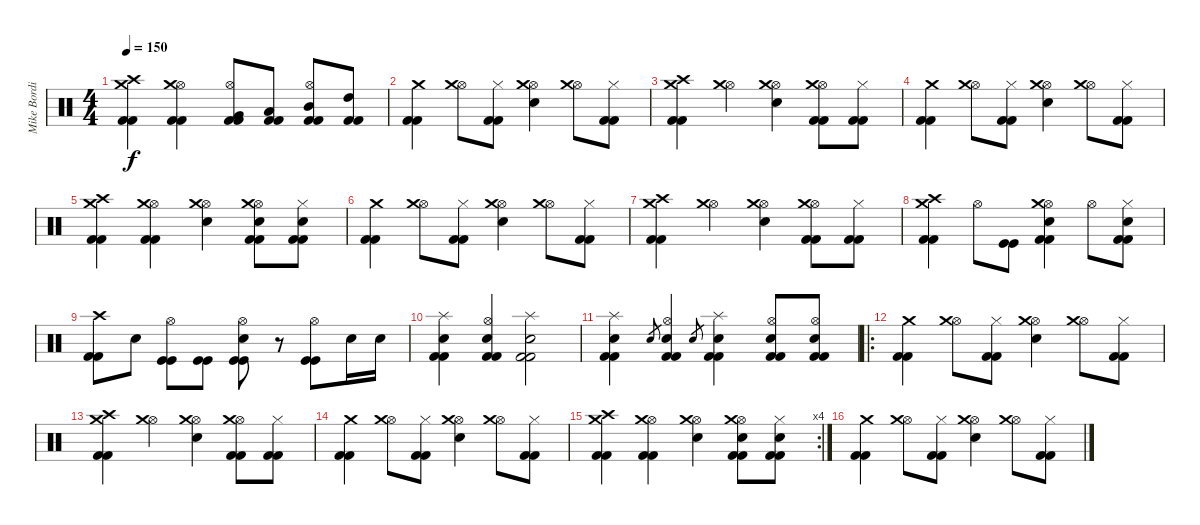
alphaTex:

\track ("Mike Bordin" "Mike Bordi") {instrument percussion}
\staff {score}
\articulation defaults
\ts (4 4)
\tempo 150
\clef neutral
\ks c
("Crash high (hit)" "Crash medium (hit)" "Kick (hit) 2" "Kick (hit) 2").4{dy f} ("Hi-Hat (open)" "Crash medium (hit)" "Kick (hit) 2" "Kick (hit) 2").4 ("Hi-Hat (open)" "Very Low Tom (hit)" "Kick (hit) 2" "Kick (hit) 2").8 ("Low Tom (hit)" "Kick (hit) 2" "Kick (hit) 2").8 ("Hi-Hat (open)" "Mid Tom (hit)" "Kick (hit) 2" "Kick (hit) 2").8 ("High Tom (hit)" "Kick (hit) 2" "Kick (hit) 2").8 |
("Crash medium (hit)" "Kick (hit) 2" "Kick (hit) 2").4 ("Hi-Hat (open)" "Crash medium (hit)").8 ("Hi-Hat (closed)" "Kick (hit) 2" "Kick (hit) 2").8 ("Hi-Hat (open)" "Crash medium (hit)" "Electric Snare (hit)").4 ("Hi-Hat (open)" "Crash medium (hit)").8 ("Hi-Hat (closed)" "Kick (hit) 2" "Kick (hit) 2").8 |
("Crash high (hit)" "Crash medium (hit)" "Kick (hit) 2" "Kick (hit) 2").4 ("Hi-Hat (open)" "Crash medium (hit)").4 ("Hi-Hat (open)" "Crash medium (hit)" "Electric Snare (hit)").4 ("Hi-Hat (open)" "Crash medium (hit)" "Kick (hit) 2" "Kick (hit) 2").8 ("Hi-Hat (closed)" "Kick (hit) 2" "Kick (hit) 2").8 |
("Crash medium (hit)" "Kick (hit) 2" "Kick (hit) 2").4 ("Hi-Hat (open)" "Crash medium (hit)").8 ("Hi-Hat (closed)" "Kick (hit) 2" "Kick (hit) 2").8 ("Hi-Hat (open)" "Crash medium (hit)" "Electric Snare (hit)").4 ("Hi-Hat (open)" "Crash medium (hit)").8 ("Hi-Hat (closed)" "Kick (hit) 2" "Kick (hit) 2").8 |
("Crash high (hit)" "Crash medium (hit)" "Kick (hit) 2" "Kick (hit) 2").4 ("Hi-Hat (open)" "Crash medium (hit)" "Kick (hit) 2" "Kick (hit) 2").4 ("Hi-Hat (open)" "Crash medium (hit)" "Electric Snare (hit)").4 ("Hi-Hat (open)" "Crash medium (hit)" "Electric Snare (hit)" "Kick (hit) 2" "Kick (hit) 2").8 ("Hi-Hat (closed)" "Electric Snare (hit)" "Kick (hit) 2" "Kick (hit) 2").8 |
("Crash medium (hit)" "Kick (hit) 2" "Kick (hit) 2").4 ("Hi-Hat (open)" "Crash medium (hit)").8 ("Hi-Hat (closed)" "Kick (hit) 2" "Kick (hit) 2").8 ("Hi-Hat (open)" "Crash medium (hit)" "Electric Snare (hit)").4 ("Hi-Hat (open)" "Crash medium (hit)").8 ("Hi-Hat (closed)" "Kick (hit) 2" "Kick (hit) 2").8 |
("Crash high (hit)" "Crash medium (hit)" "Kick (hit) 2" "Kick (hit) 2").4 ("Hi-Hat (open)" "Crash medium (hit)").4 ("Hi-Hat (open)" "Crash medium (hit)" "Electric Snare (hit)").4 ("Hi-Hat (open)" "Crash medium (hit)" "Kick (hit) 2" "Kick (hit) 2").8 ("Hi-Hat (closed)" "Kick (hit) 2" "Kick (hit) 2").8 |
("Crash high (hit)" "Crash medium (hit)" "Kick (hit) 2" "Kick (hit) 2").4 "Hi-Hat (open)".8 ("Kick (hit)" "Kick (hit)").8 ("Hi-Hat (open)" "Crash medium (hit)" "Electric Snare (hit)" "Kick (hit) 2" "Kick (hit) 2").4 "Hi-Hat (open)".8 ("Hi-Hat (closed)" "Electric Snare (hit)" "Kick (hit) 2" "Kick (hit) 2").8 |
("Crash high (hit)" "Kick (hit) 2" "Kick (hit) 2").8 "Electric Snare (hit)".8 ("Hi-Hat (open)" "Kick (hit)" "Kick (hit)").8 ("Kick (hit)" "Kick (hit)").8 ("Hi-Hat (open)" "Electric Snare (hit)" "Kick (hit)" "Kick (hit)").8 r.8 ("Hi-Hat (open)" "Kick (hit)" "Kick (hit)").8 "Electric Snare (hit)".16 "Electric Snare (hit)".16 |
("Splash (hit)" "Electric Snare (hit)" "Kick (hit) 2" "Kick (hit) 2").4 ("Hi-Hat (open)" "Electric Snare (hit)" "Kick (hit) 2" "Kick (hit) 2").4 ("Splash (hit)" "Electric Snare (hit)" "Kick (hit) 2" "Kick (hit) 2").2 |
("Splash (hit)" "Electric Snare (hit)" "Kick (hit) 2" "Kick (hit) 2").4 "Electric Snare (hit)".8{gr} ("Hi-Hat (open)" "Electric Snare (hit)" "Kick (hit) 2" "Kick (hit) 2").4 "Electric Snare (hit)".8{gr} ("Splash (hit)" "Electric Snare (hit)" "Kick (hit) 2" "Kick (hit) 2").4 ("Hi-Hat (open)" "Electric Snare (hit)" "Kick (hit) 2" "Kick (hit) 2").8 ("Hi-Hat (open)" "Electric Snare (hit)" "Kick (hit) 2" "Kick (hit) 2").8 |
\ro
("Crash medium (hit)" "Kick (hit) 2" "Kick (hit) 2").4 ("Hi-Hat (open)" "Crash medium (hit)").8 ("Hi-Hat (closed)" "Kick (hit) 2" "Kick (hit) 2").8 ("Hi-Hat (open)" "Crash medium (hit)" "Electric Snare (hit)").4 ("Hi-Hat (open)" "Crash medium (hit)").8 ("Hi-Hat (closed)" "Kick (hit) 2" "Kick (hit) 2").8 |
("Crash high (hit)" "Crash medium (hit)" "Kick (hit) 2" "Kick (hit) 2").4 ("Hi-Hat (open)" "Crash medium (hit)").4 ("Hi-Hat (open)" "Crash medium (hit)" "Electric Snare (hit)").4 ("Hi-Hat (open)" "Crash medium (hit)" "Kick (hit) 2" "Kick (hit) 2").8 ("Hi-Hat (closed)" "Kick (hit) 2" "Kick (hit) 2").8 |
("Crash medium (hit)" "Kick (hit) 2" "Kick (hit) 2").4 ("Hi-Hat (open)" "Crash medium (hit)").8 ("Hi-Hat (closed)" "Kick (hit) 2" "Kick (hit) 2").8 ("Hi-Hat (open)" "Crash medium (hit)" "Electric Snare (hit)").4 ("Hi-Hat (open)" "Crash medium (hit)").8 ("Hi-Hat (closed)" "Kick (hit) 2" "Kick (hit) 2").8 |
\rc 4
("Crash high (hit)" "Crash medium (hit)" "Kick (hit) 2" "Kick (hit) 2").4 ("Hi-Hat (open)" "Crash medium (hit)" "Kick (hit) 2" "Kick (hit) 2").4 ("Hi-Hat (open)" "Crash medium (hit)" "Electric Snare (hit)").4 ("Hi-Hat (open)" "Crash medium (hit)" "Electric Snare (hit)" "Kick (hit) 2" "Kick (hit) 2").8 ("Hi-Hat (closed)" "Electric Snare (hit)" "Kick (hit) 2" "Kick (hit) 2").8 |
("Crash medium (hit)" "Kick (hit) 2" "Kick (hit) 2").4 ("Hi-Hat (open)" "Crash medium (hit)").8 ("Hi-Hat (closed)" "Kick (hit) 2" "Kick (hit) 2").8 ("Hi-Hat (open)" "Crash medium (hit)" "Electric Snare (hit)").4 ("Hi-Hat (open)" "Crash medium (hit)").8 ("Hi-Hat (closed)" "Kick (hit) 2" "Kick (hit) 2").8
